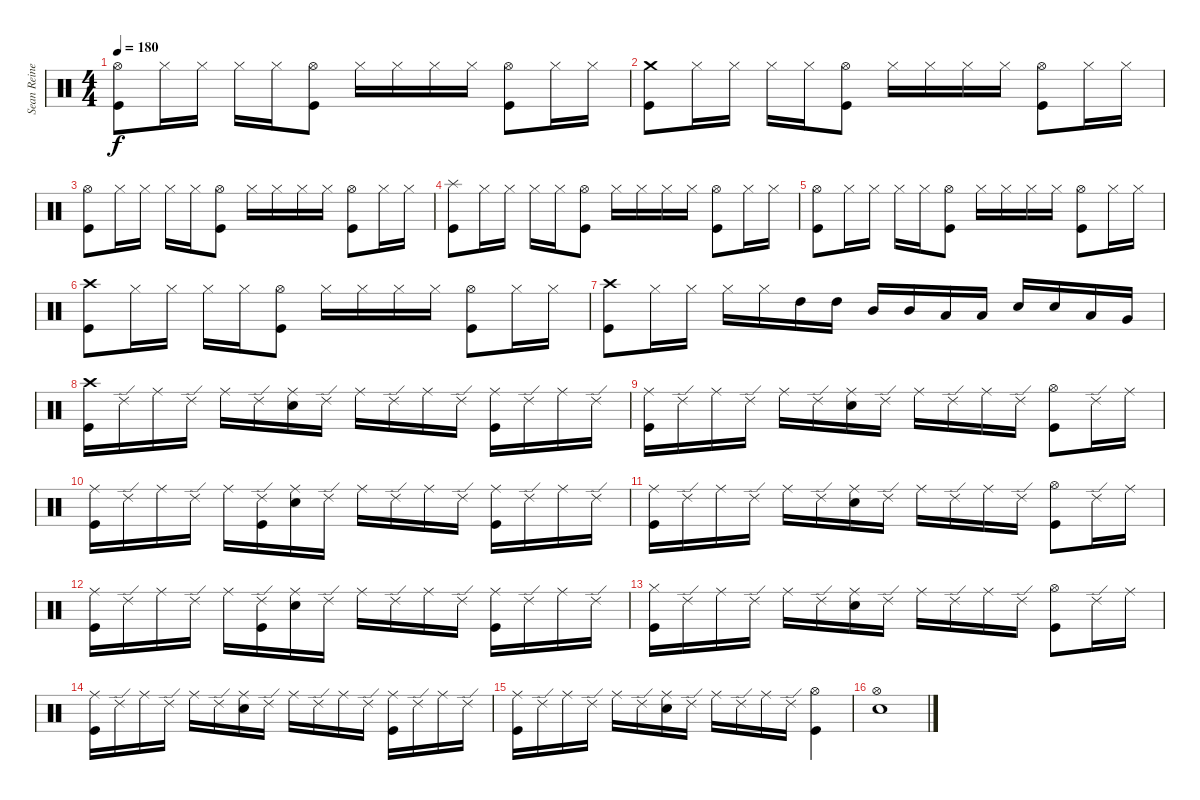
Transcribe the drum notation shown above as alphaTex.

\track ("Sean Reinert " "Sean Reine") {instrument percussion}
\staff {score}
\articulation defaults
\ts (4 4)
\tempo 180
\clef neutral
\ks c
("Hi-Hat (open)" "Kick (hit)").8{dy f} "Hi-Hat (closed)".16 "Hi-Hat (closed)".16 "Hi-Hat (closed)".16 "Hi-Hat (closed)".16 ("Hi-Hat (open)" "Kick (hit)").8 "Hi-Hat (closed)".16 "Hi-Hat (closed)".16 "Hi-Hat (closed)".16 "Hi-Hat (closed)".16 ("Hi-Hat (open)" "Kick (hit)").8 "Hi-Hat (closed)".16 "Hi-Hat (closed)".16 |
("Crash medium (hit)" "Kick (hit)").8 "Hi-Hat (closed)".16 "Hi-Hat (closed)".16 "Hi-Hat (closed)".16 "Hi-Hat (closed)".16 ("Hi-Hat (open)" "Kick (hit)").8 "Hi-Hat (closed)".16 "Hi-Hat (closed)".16 "Hi-Hat (closed)".16 "Hi-Hat (closed)".16 ("Hi-Hat (open)" "Kick (hit)").8 "Hi-Hat (closed)".16 "Hi-Hat (closed)".16 |
("Hi-Hat (open)" "Kick (hit)").8 "Hi-Hat (closed)".16 "Hi-Hat (closed)".16 "Hi-Hat (closed)".16 "Hi-Hat (closed)".16 ("Hi-Hat (open)" "Kick (hit)").8 "Hi-Hat (closed)".16 "Hi-Hat (closed)".16 "Hi-Hat (closed)".16 "Hi-Hat (closed)".16 ("Hi-Hat (open)" "Kick (hit)").8 "Hi-Hat (closed)".16 "Hi-Hat (closed)".16 |
("Splash (hit)" "Kick (hit)").8 "Hi-Hat (closed)".16 "Hi-Hat (closed)".16 "Hi-Hat (closed)".16 "Hi-Hat (closed)".16 ("Hi-Hat (open)" "Kick (hit)").8 "Hi-Hat (closed)".16 "Hi-Hat (closed)".16 "Hi-Hat (closed)".16 "Hi-Hat (closed)".16 ("Hi-Hat (open)" "Kick (hit)").8 "Hi-Hat (closed)".16 "Hi-Hat (closed)".16 |
("Hi-Hat (open)" "Kick (hit)").8 "Hi-Hat (closed)".16 "Hi-Hat (closed)".16 "Hi-Hat (closed)".16 "Hi-Hat (closed)".16 ("Hi-Hat (open)" "Kick (hit)").8 "Hi-Hat (closed)".16 "Hi-Hat (closed)".16 "Hi-Hat (closed)".16 "Hi-Hat (closed)".16 ("Hi-Hat (open)" "Kick (hit)").8 "Hi-Hat (closed)".16 "Hi-Hat (closed)".16 |
("Crash high (hit)" "Kick (hit)").8 "Hi-Hat (closed)".16 "Hi-Hat (closed)".16 "Hi-Hat (closed)".16 "Hi-Hat (closed)".16 ("Hi-Hat (open)" "Kick (hit)").8 "Hi-Hat (closed)".16 "Hi-Hat (closed)".16 "Hi-Hat (closed)".16 "Hi-Hat (closed)".16 ("Hi-Hat (open)" "Kick (hit)").8 "Hi-Hat (closed)".16 "Hi-Hat (closed)".16 |
("Crash high (hit)" "Kick (hit)").8 "Hi-Hat (closed)".16 "Hi-Hat (closed)".16 "Hi-Hat (closed)".16 "Hi-Hat (closed)".16 "High Tom (hit)".16 "High Tom (hit)".16 "Mid Tom (hit)".16 "Mid Tom (hit)".16 "Low Tom (hit)".16 "Low Tom (hit)".16 "Electric Snare (hit)".16 "Electric Snare (hit)".16 "Low Tom (hit)".16 "Very Low Tom (hit)".16 |
("Crash high (hit)" "Kick (hit)").16 "Ride (edge) 2".16 "Ride (middle)".16 "Ride (edge) 2".16 "Ride (middle)".16 "Ride (edge) 2".16 ("Ride (middle)" "Electric Snare (hit)").16 "Ride (edge) 2".16 "Ride (middle)".16 "Ride (edge) 2".16 "Ride (middle)".16 "Ride (edge) 2".16 ("Ride (middle)" "Kick (hit)").16 "Ride (edge) 2".16 "Ride (middle)".16 "Ride (edge) 2".16 |
("Ride (middle)" "Kick (hit)").16 "Ride (edge) 2".16 "Ride (middle)".16 "Ride (edge) 2".16 "Ride (middle)".16 "Ride (edge) 2".16 ("Ride (middle)" "Electric Snare (hit)").16 "Ride (edge) 2".16 "Ride (middle)".16 "Ride (edge) 2".16 "Ride (middle)".16 "Ride (edge) 2".16 ("Hi-Hat (open)" "Kick (hit)").8 "Ride (edge) 2".16 "Ride (middle)".16 |
("Ride (middle)" "Kick (hit)").16 "Ride (edge) 2".16 "Ride (middle)".16 "Ride (edge) 2".16 "Ride (middle)".16 ("Ride (edge) 2" "Kick (hit)").16 ("Ride (middle)" "Electric Snare (hit)").16 "Ride (edge) 2".16 "Ride (middle)".16 "Ride (edge) 2".16 "Ride (middle)".16 "Ride (edge) 2".16 ("Ride (middle)" "Kick (hit)").16 "Ride (edge) 2".16 "Ride (middle)".16 "Ride (edge) 2".16 |
("Ride (middle)" "Kick (hit)").16 "Ride (edge) 2".16 "Ride (middle)".16 "Ride (edge) 2".16 "Ride (middle)".16 "Ride (edge) 2".16 ("Ride (middle)" "Electric Snare (hit)").16 "Ride (edge) 2".16 "Ride (middle)".16 "Ride (edge) 2".16 "Ride (middle)".16 "Ride (edge) 2".16 ("Hi-Hat (open)" "Kick (hit)").8 "Ride (edge) 2".16 "Ride (middle)".16 |
("Ride (middle)" "Kick (hit)").16 "Ride (edge) 2".16 "Ride (middle)".16 "Ride (edge) 2".16 "Ride (middle)".16 ("Ride (edge) 2" "Kick (hit)").16 ("Ride (middle)" "Electric Snare (hit)").16 "Ride (edge) 2".16 "Ride (middle)".16 "Ride (edge) 2".16 "Ride (middle)".16 "Ride (edge) 2".16 ("Ride (middle)" "Kick (hit)").16 "Ride (edge) 2".16 "Ride (middle)".16 "Ride (edge) 2".16 |
("Hi-Hat (closed)" "Kick (hit)").16 "Ride (edge) 2".16 "Ride (middle)".16 "Ride (edge) 2".16 "Ride (middle)".16 "Ride (edge) 2".16 ("Ride (middle)" "Electric Snare (hit)").16 "Ride (edge) 2".16 "Ride (middle)".16 "Ride (edge) 2".16 "Ride (middle)".16 "Ride (edge) 2".16 ("Hi-Hat (open)" "Kick (hit)").8 "Ride (edge) 2".16 "Ride (middle)".16 |
("Ride (middle)" "Kick (hit)").16 "Ride (edge) 2".16 "Ride (middle)".16 "Ride (edge) 2".16 "Ride (middle)".16 "Ride (edge) 2".16 ("Ride (middle)" "Electric Snare (hit)").16 "Ride (edge) 2".16 "Ride (middle)".16 "Ride (edge) 2".16 "Ride (middle)".16 "Ride (edge) 2".16 ("Ride (middle)" "Kick (hit)").16 "Ride (edge) 2".16 "Ride (middle)".16 "Ride (edge) 2".16 |
("Ride (middle)" "Kick (hit)").16 "Ride (edge) 2".16 "Ride (middle)".16 "Ride (edge) 2".16 "Ride (middle)".16 "Ride (edge) 2".16 ("Ride (middle)" "Electric Snare (hit)").16 "Ride (edge) 2".16 "Ride (middle)".16 "Ride (edge) 2".16 "Ride (middle)".16 "Ride (edge) 2".16 ("Hi-Hat (open)" "Kick (hit)").4 |
("Hi-Hat (open)" "Electric Snare (hit)").1
